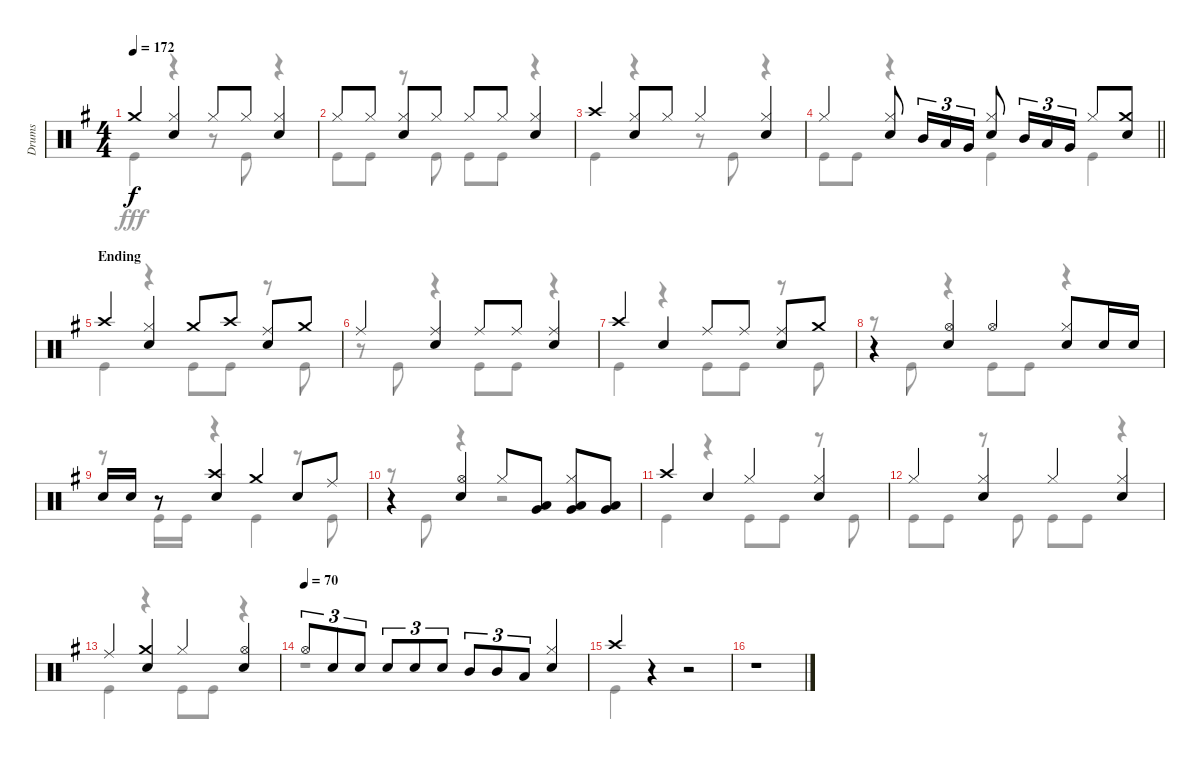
\track ("Drums" "Drums") {instrument percussion}
\staff {score}
\articulation defaults
\voice
\ts (4 4)
\tempo 172
\clef neutral
\ks g "Crash medium (hit)".4{dy f}
("Hi-Hat (closed)" "Snare (hit) 2").4 "Hi-Hat (closed)".8 "Hi-Hat (closed)".8 ("Hi-Hat (closed)" "Snare (hit) 2").4 |
"Hi-Hat (closed)".8 "Hi-Hat (closed)".8 ("Hi-Hat (closed)" "Snare (hit) 2").8 "Hi-Hat (closed)".8 "Hi-Hat (closed)".8 "Hi-Hat (closed)".8 ("Hi-Hat (closed)" "Snare (hit) 2").4 |
"Crash high (hit)".4 ("Hi-Hat (closed)" "Snare (hit) 2").8 "Hi-Hat (closed)".8 "Hi-Hat (closed)".4 ("Hi-Hat (closed)" "Snare (hit) 2").4 |
\barLineRight lightlight "Hi-Hat (closed)".4
("Hi-Hat (closed)" "Snare (hit) 2").8 "Mid Tom (hit)".16{tu (3 2)} "Low Tom (hit)".16{tu (3 2)} "Very Low Tom (hit)".16{tu (3 2)} ("Hi-Hat (closed)" "Snare (hit) 2").8 "Mid Tom (hit)".16{tu (3 2)} "Low Tom (hit)".16{tu (3 2)} "Very Low Tom (hit)".16{tu (3 2)} "Hi-Hat (closed)".8 ("Crash medium (hit)" "Snare (hit) 2").8 |
\section ("" "Ending")
"Crash high (hit)".4 ("Hi-Hat (closed)" "Snare (hit) 2").4 "Crash medium (hit)".8 "Crash high (hit)".8 ("Ride (middle)" "Snare (hit) 2").8 "Crash medium (hit)".8 |
"Ride (middle)".4 ("Ride (middle)" "Snare (hit) 2").4 "Ride (middle)".8 "Ride (middle)".8 ("Ride (middle)" "Snare (hit) 2").4 |
"Crash high (hit)".4 "Snare (hit) 2".4 "Ride (middle)".8 "Ride (middle)".8 ("Ride (middle)" "Snare (hit) 2").8 "Crash medium (hit)".8 |
r.4 ("Hi-Hat (open)" "Snare (hit) 2").4 "Hi-Hat (open)".4 ("Hi-Hat (closed)" "Snare (hit) 2").8 "Snare (hit) 2".16 "Snare (hit) 2".16 |
"Snare (hit) 2".16 "Snare (hit) 2".16 r.8 ("Crash high (hit)" "Snare (hit) 2").4 "Crash medium (hit)".4 "Snare (hit) 2".8 "Ride (middle)".8 |
r.4 ("Hi-Hat (open)" "Snare (hit) 2").4 "Hi-Hat (closed)".8 ("Low Tom (hit)" "Very Low Tom (hit)").8 ("Hi-Hat (closed)" "Low Tom (hit)" "Very Low Tom (hit)").8 ("Low Tom (hit)" "Very Low Tom (hit)").8 |
"Crash high (hit)".4 "Snare (hit) 2".4 "Hi-Hat (closed)".4 ("Hi-Hat (closed)" "Snare (hit) 2").4 |
"Hi-Hat (closed)".4 ("Hi-Hat (closed)" "Snare (hit) 2").4 "Hi-Hat (closed)".4 ("Hi-Hat (closed)" "Snare (hit) 2").4 |
"Ride (middle)".4 ("Crash medium (hit)" "Snare (hit) 2").4 "Hi-Hat (closed)".4 ("Hi-Hat (open)" "Snare (hit) 2").4 |
\tempo (70)
"Hi-Hat (open)".8{tu (3 2)} "Snare (hit) 2".8{tu (3 2)} "Snare (hit) 2".8{tu (3 2)} "Snare (hit) 2".8{tu (3 2)} "Snare (hit) 2".8{tu (3 2)} "Snare (hit) 2".8{tu (3 2)} "Mid Tom (hit)".8{tu (3 2)} "Mid Tom (hit)".8{tu (3 2)} "Low Tom (hit)".8{tu (3 2)} ("Hi-Hat (closed)" "Snare (hit) 2").4 |
"Crash high (hit)".4 r.4 r.2 |
r.1
\voice
\clef neutral
\ottava regular
\simile none
\ks g "Kick (hit)".4{dy fff}
r.4 r.8 "Kick (hit)".8 r.4 |
"Kick (hit)".8 "Kick (hit)".8 r.8 "Kick (hit)".8 "Kick (hit)".8 "Kick (hit)".8 r.4 |
"Kick (hit)".4 r.4 r.8 "Kick (hit)".8 r.4 |
\barLineRight lightlight "Kick (hit)".8 "Kick (hit)".8
r.4 "Kick (hit)".4 "Kick (hit)".4 |
"Kick (hit)".4 r.4 "Kick (hit)".8 "Kick (hit)".8 r.8 "Kick (hit)".8 |
r.8 "Kick (hit)".8 r.4 "Kick (hit)".8 "Kick (hit)".8 r.4 |
"Kick (hit)".4 r.4 "Kick (hit)".8 "Kick (hit)".8 r.8 "Kick (hit)".8 |
r.8 "Kick (hit)".8 r.4 "Kick (hit)".8 "Kick (hit)".8 r.4 |
r.8 "Kick (hit)".16 "Kick (hit)".16 r.4 "Kick (hit)".4 r.8 "Kick (hit)".8 |
r.8 "Kick (hit)".8 r.4 r.2 |
"Kick (hit)".4 r.4 "Kick (hit)".8 "Kick (hit)".8 r.8 "Kick (hit)".8 |
"Kick (hit)".8 "Kick (hit)".8 r.8 "Kick (hit)".8 "Kick (hit)".8 "Kick (hit)".8 r.4 |
"Kick (hit)".4 r.4 "Kick (hit)".8 "Kick (hit)".8 r.4 |
r.1 |
"Kick (hit)".4 r.4 r.2 |
r.1
